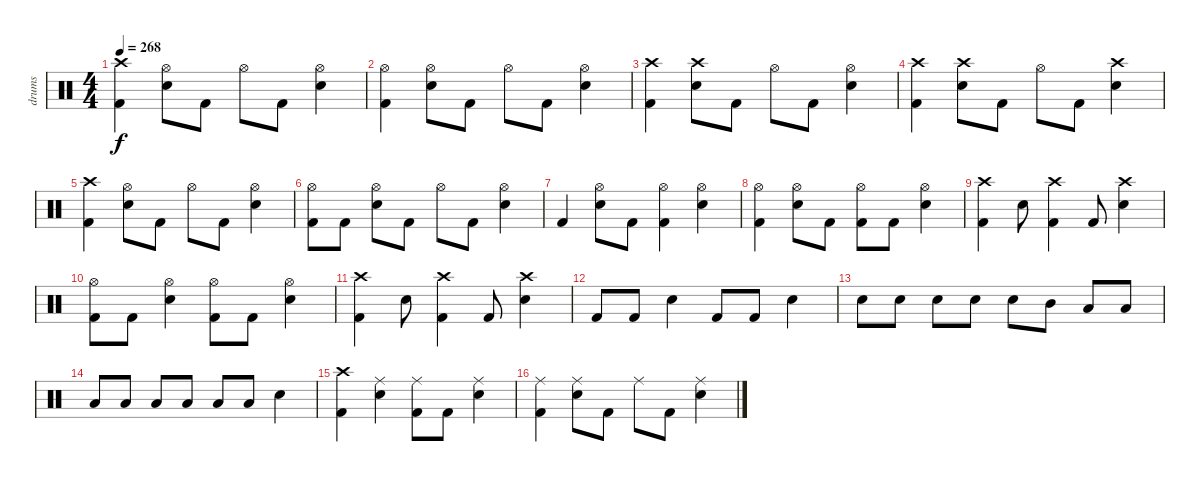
\track ("drums" "drums") {instrument percussion}
\staff {score}
\articulation defaults
\ts (4 4)
\tempo 268
\clef neutral
\ks c
("Crash high (hit)" "Kick (hit) 2").4{dy f} ("Hi-Hat (open)" "Electric Snare (hit)").8 "Kick (hit) 2".8 "Hi-Hat (open)".8 "Kick (hit) 2".8 ("Hi-Hat (open)" "Electric Snare (hit)").4 |
("Hi-Hat (open)" "Kick (hit) 2").4 ("Hi-Hat (open)" "Electric Snare (hit)").8 "Kick (hit) 2".8 "Hi-Hat (open)".8 "Kick (hit) 2".8 ("Hi-Hat (open)" "Electric Snare (hit)").4 |
("Crash high (hit)" "Kick (hit) 2").4 ("Crash high (hit)" "Electric Snare (hit)").8 "Kick (hit) 2".8 "Hi-Hat (open)".8 "Kick (hit) 2".8 ("Hi-Hat (open)" "Electric Snare (hit)").4 |
("Crash high (hit)" "Kick (hit) 2").4 ("Crash high (hit)" "Electric Snare (hit)").8 "Kick (hit) 2".8 "Hi-Hat (open)".8 "Kick (hit) 2".8 ("Crash high (hit)" "Electric Snare (hit)").4 |
("Crash high (hit)" "Kick (hit) 2").4 ("Hi-Hat (open)" "Electric Snare (hit)").8 "Kick (hit) 2".8 "Hi-Hat (open)".8 "Kick (hit) 2".8 ("Hi-Hat (open)" "Electric Snare (hit)").4 |
("Hi-Hat (open)" "Kick (hit) 2").8 "Kick (hit) 2".8 ("Hi-Hat (open)" "Electric Snare (hit)").8 "Kick (hit) 2".8 "Hi-Hat (open)".8 "Kick (hit) 2".8 ("Hi-Hat (open)" "Electric Snare (hit)").4 |
"Kick (hit) 2".4 ("Hi-Hat (open)" "Electric Snare (hit)").8 "Kick (hit) 2".8 ("Hi-Hat (open)" "Kick (hit) 2").4 ("Hi-Hat (open)" "Electric Snare (hit)").4 |
("Hi-Hat (open)" "Kick (hit) 2").4 ("Hi-Hat (open)" "Electric Snare (hit)").8 "Kick (hit) 2".8 ("Hi-Hat (open)" "Kick (hit) 2").8 "Kick (hit) 2".8 ("Hi-Hat (open)" "Electric Snare (hit)").4 |
("Crash high (hit)" "Kick (hit) 2").4 "Electric Snare (hit)".8 ("Crash high (hit)" "Kick (hit) 2").4 "Kick (hit) 2".8 ("Crash high (hit)" "Electric Snare (hit)").4 |
("Hi-Hat (open)" "Kick (hit) 2").8 "Kick (hit) 2".8 ("Hi-Hat (open)" "Electric Snare (hit)").4 ("Hi-Hat (open)" "Kick (hit) 2").8 "Kick (hit) 2".8 ("Hi-Hat (open)" "Electric Snare (hit)").4 |
("Crash high (hit)" "Kick (hit) 2").4 "Electric Snare (hit)".8 ("Crash high (hit)" "Kick (hit) 2").4 "Kick (hit) 2".8 ("Crash high (hit)" "Electric Snare (hit)").4 |
"Kick (hit) 2".8 "Kick (hit) 2".8 "Electric Snare (hit)".4 "Kick (hit) 2".8 "Kick (hit) 2".8 "Electric Snare (hit)".4 |
"Electric Snare (hit)".8 "Electric Snare (hit)".8 "Electric Snare (hit)".8 "Electric Snare (hit)".8 "Electric Snare (hit)".8 "Mid Tom (hit)".8 "Low Tom (hit)".8 "Low Tom (hit)".8 |
"Low Floor Tom (hit)".8 "Low Floor Tom (hit)".8 "Low Tom (hit)".8 "Low Tom (hit)".8 "Low Floor Tom (hit)".8 "Low Floor Tom (hit)".8 "Electric Snare (hit)".4 |
("Crash high (hit)" "Kick (hit) 2").4 ("Ride (middle)" "Electric Snare (hit)").4 ("Ride (middle)" "Kick (hit) 2").8 "Kick (hit) 2".8 ("Ride (middle)" "Electric Snare (hit)").4 |
("Ride (middle)" "Kick (hit) 2").4 ("Ride (middle)" "Electric Snare (hit)").8 "Kick (hit) 2".8 "Ride (middle)".8 "Kick (hit) 2".8 ("Ride (middle)" "Electric Snare (hit)").4
